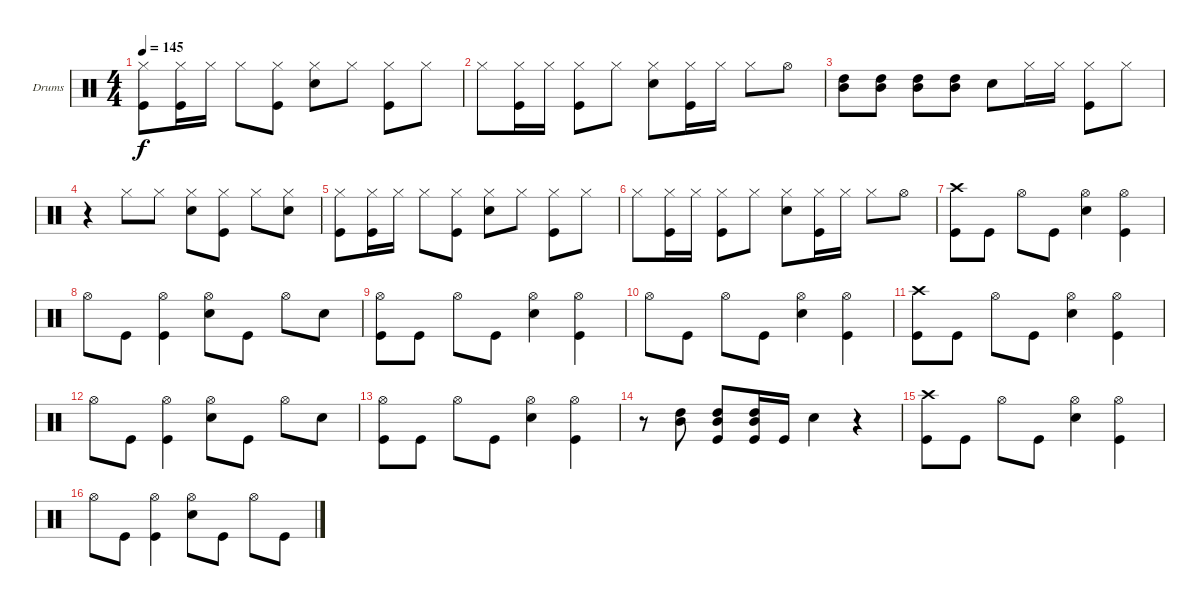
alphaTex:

\bracketExtendMode groupsimilarinstruments
\firstSystemTrackNameOrientation horizontal
\otherSystemsTrackNameOrientation horizontal
\track ("Drumkit" "Drums") {instrument percussion}
\staff {score}
\articulation defaults
\ts (4 4)
\tempo 145
\clef neutral
\ks c
("Kick (hit)" "Hi-Hat (closed)").8{dy f} ("Kick (hit)" "Hi-Hat (closed)").16 "Hi-Hat (closed)".16 "Hi-Hat (closed)".8 ("Hi-Hat (closed)" "Kick (hit)").8 ("Hi-Hat (closed)" "Snare (hit) 2").8 "Hi-Hat (closed)".8 ("Hi-Hat (closed)" "Kick (hit)").8 "Hi-Hat (closed)".8 |
"Hi-Hat (closed)".8 ("Hi-Hat (closed)" "Kick (hit)").16 "Hi-Hat (closed)".16 ("Hi-Hat (closed)" "Kick (hit)").8 "Hi-Hat (closed)".8 ("Hi-Hat (closed)" "Snare (hit) 2").8 ("Kick (hit)" "Hi-Hat (closed)").16 "Hi-Hat (closed)".16 "Hi-Hat (closed)".8 "Hi-Hat (open)".8 |
("High Tom (hit)" "Mid Tom (hit)").8 ("High Tom (hit)" "Mid Tom (hit)").8 ("High Tom (hit)" "Mid Tom (hit)").8 ("High Tom (hit)" "Mid Tom (hit)").8 "Snare (hit) 2".8 "Hi-Hat (closed)".16 "Hi-Hat (closed)".16 ("Hi-Hat (closed)" "Kick (hit)").8 "Hi-Hat (closed)".8 |
r.4 "Hi-Hat (closed)".8 "Hi-Hat (closed)".8 ("Hi-Hat (closed)" "Snare (hit) 2").8 ("Hi-Hat (closed)" "Kick (hit)").8 "Hi-Hat (closed)".8 ("Hi-Hat (closed)" "Snare (hit) 2").8 |
("Kick (hit)" "Hi-Hat (closed)").8 ("Kick (hit)" "Hi-Hat (closed)").16 "Hi-Hat (closed)".16 "Hi-Hat (closed)".8 ("Hi-Hat (closed)" "Kick (hit)").8 ("Hi-Hat (closed)" "Snare (hit) 2").8 "Hi-Hat (closed)".8 ("Hi-Hat (closed)" "Kick (hit)").8 "Hi-Hat (closed)".8 |
"Hi-Hat (closed)".8 ("Hi-Hat (closed)" "Kick (hit)").16 "Hi-Hat (closed)".16 ("Hi-Hat (closed)" "Kick (hit)").8 "Hi-Hat (closed)".8 ("Hi-Hat (closed)" "Snare (hit) 2").8 ("Kick (hit)" "Hi-Hat (closed)").16 "Hi-Hat (closed)".16 "Hi-Hat (closed)".8 "Hi-Hat (open)".8 |
("Crash high (hit)" "Kick (hit)").8 "Kick (hit)".8 "Hi-Hat (open)".8 "Kick (hit)".8 ("Hi-Hat (open)" "Snare (hit) 2").4 ("Hi-Hat (open)" "Kick (hit)").4 |
"Hi-Hat (open)".8 "Kick (hit)".8 ("Hi-Hat (open)" "Kick (hit)").4 ("Hi-Hat (open)" "Snare (hit) 2").8 "Kick (hit)".8 "Hi-Hat (open)".8 "Snare (hit) 2".8 |
("Hi-Hat (open)" "Kick (hit)").8 "Kick (hit)".8 "Hi-Hat (open)".8 "Kick (hit)".8 ("Hi-Hat (open)" "Snare (hit) 2").4 ("Hi-Hat (open)" "Kick (hit)").4 |
"Hi-Hat (open)".8 "Kick (hit)".8 "Hi-Hat (open)".8 "Kick (hit)".8 ("Hi-Hat (open)" "Snare (hit) 2").4 ("Hi-Hat (open)" "Kick (hit)").4 |
("Crash high (hit)" "Kick (hit)").8 "Kick (hit)".8 "Hi-Hat (open)".8 "Kick (hit)".8 ("Hi-Hat (open)" "Snare (hit) 2").4 ("Hi-Hat (open)" "Kick (hit)").4 |
"Hi-Hat (open)".8 "Kick (hit)".8 ("Hi-Hat (open)" "Kick (hit)").4 ("Hi-Hat (open)" "Snare (hit) 2").8 "Kick (hit)".8 "Hi-Hat (open)".8 "Snare (hit) 2".8 |
("Hi-Hat (open)" "Kick (hit)").8 "Kick (hit)".8 "Hi-Hat (open)".8 "Kick (hit)".8 ("Hi-Hat (open)" "Snare (hit) 2").4 ("Hi-Hat (open)" "Kick (hit)").4 |
r.8 ("High Tom (hit)" "Mid Tom (hit)").8 ("High Tom (hit)" "Mid Tom (hit)" "Kick (hit)").8 ("High Tom (hit)" "Mid Tom (hit)" "Kick (hit)").16 "Kick (hit)".16 "Snare (hit) 2".4 r.4 |
("Crash high (hit)" "Kick (hit)").8 "Kick (hit)".8 "Hi-Hat (open)".8 "Kick (hit)".8 ("Hi-Hat (open)" "Snare (hit) 2").4 ("Hi-Hat (open)" "Kick (hit)").4 |
"Hi-Hat (open)".8 "Kick (hit)".8 ("Hi-Hat (open)" "Kick (hit)").4 ("Hi-Hat (open)" "Snare (hit) 2").8 "Kick (hit)".8 "Hi-Hat (open)".8 "Kick (hit)".8
